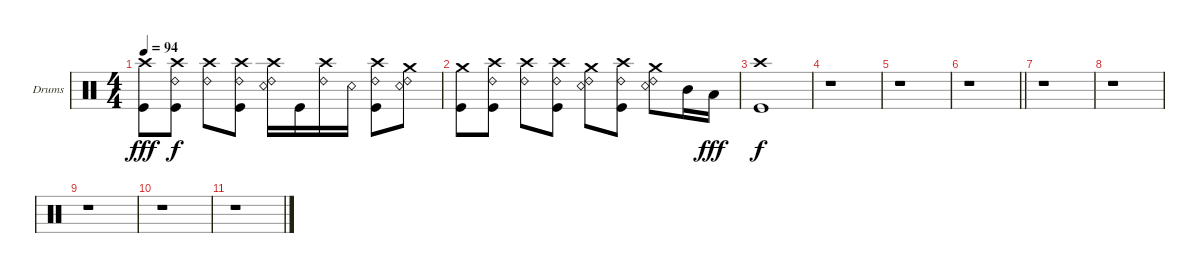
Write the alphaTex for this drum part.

\bracketExtendMode groupsimilarinstruments
\firstSystemTrackNameOrientation horizontal
\otherSystemsTrackNameOrientation horizontal
\track ("Drumkit" "Drums") {instrument percussion}
\staff {score}
\articulation defaults
\ts (4 4)
\tempo 94
\clef neutral
\ks c
("Crash high (hit)" "Kick (hit)").8{dy fff} ("Crash high (hit)" "Kick (hit)" "Ride (bell) 2").8{dy f} ("Crash high (hit)" "Ride (bell) 2").8 ("Crash high (hit)" "Kick (hit)" "Ride (bell) 2").8 ("Crash high (hit)" "Snare (rim shot)" "Ride (bell) 2").16 "Kick (hit)".16 ("Crash high (hit)" "Ride (bell) 2").16 "Snare (rim shot)".16 ("Crash high (hit)" "Kick (hit)" "Ride (bell) 2").8 ("Crash medium (hit)" "Snare (rim shot)" "Ride (bell) 2").8 |
("Crash medium (hit)" "Kick (hit)").8 ("Crash high (hit)" "Kick (hit)" "Ride (bell) 2").8 ("Crash high (hit)" "Ride (bell) 2").8 ("Crash high (hit)" "Kick (hit)" "Ride (bell) 2").8 ("Crash medium (hit)" "Snare (rim shot)" "Ride (bell) 2").8 ("Crash high (hit)" "Kick (hit)" "Ride (bell) 2").8 ("Crash medium (hit)" "Snare (rim shot)" "Ride (bell) 2").8 "Mid Tom (hit)".16 "Low Tom (hit)".16{dy fff} |
("Crash high (hit)" "Kick (hit)").1{dy f} |
r.1 |
r.1 |
\barLineRight lightlight
r.1 |
r.1 |
r.1 |
r.1 |
r.1 |
r.1
